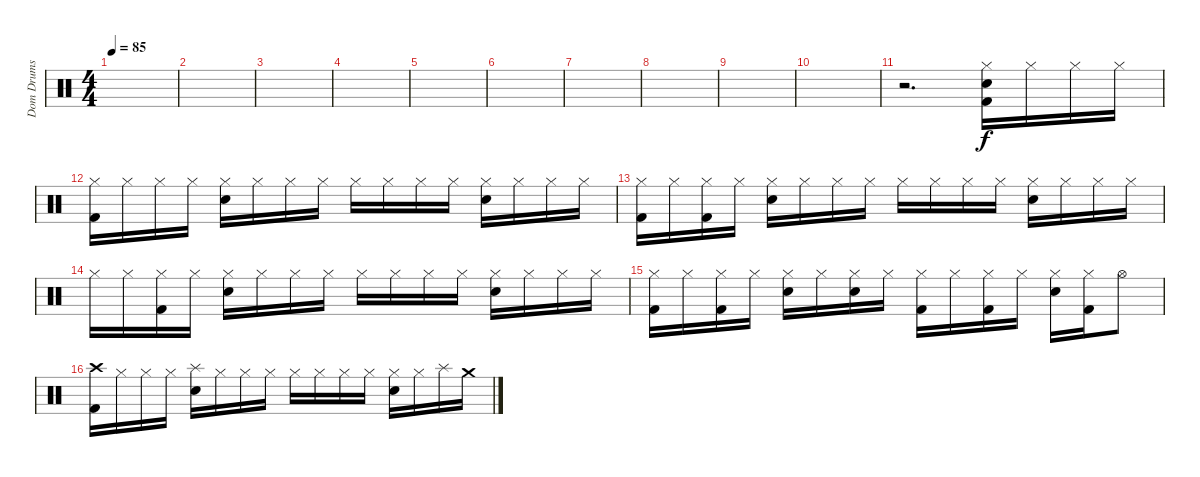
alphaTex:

\track ("Dom Drums" "Dom Drums") {instrument percussion}
\staff {score}
\articulation defaults
\ts (4 4)
\tempo 85
\clef neutral
\ks c
|
|
|
|
|
|
|
|
|
|
r.2{d} ("Hi-Hat (closed)" "Snare (hit) 2" "Kick (hit) 2").16 "Hi-Hat (closed)".16 "Hi-Hat (closed)".16 "Hi-Hat (closed)".16 |
("Hi-Hat (closed)" "Kick (hit) 2").16 "Hi-Hat (closed)".16 "Hi-Hat (closed)".16 "Hi-Hat (closed)".16 ("Hi-Hat (closed)" "Snare (hit) 2").16 "Hi-Hat (closed)".16 "Hi-Hat (closed)".16 "Hi-Hat (closed)".16 "Hi-Hat (closed)".16 "Hi-Hat (closed)".16 "Hi-Hat (closed)".16 "Hi-Hat (closed)".16 ("Hi-Hat (closed)" "Snare (hit) 2").16 "Hi-Hat (closed)".16 "Hi-Hat (closed)".16 "Hi-Hat (closed)".16 |
("Hi-Hat (closed)" "Kick (hit) 2").16 "Hi-Hat (closed)".16 ("Hi-Hat (closed)" "Kick (hit) 2").16 "Hi-Hat (closed)".16 ("Hi-Hat (closed)" "Snare (hit) 2").16 "Hi-Hat (closed)".16 "Hi-Hat (closed)".16 "Hi-Hat (closed)".16 "Hi-Hat (closed)".16 "Hi-Hat (closed)".16 "Hi-Hat (closed)".16 "Hi-Hat (closed)".16 ("Hi-Hat (closed)" "Snare (hit) 2").16 "Hi-Hat (closed)".16 "Hi-Hat (closed)".16 "Hi-Hat (closed)".16 |
"Hi-Hat (closed)".16 "Hi-Hat (closed)".16 ("Hi-Hat (closed)" "Kick (hit) 2").16 "Hi-Hat (closed)".16 ("Hi-Hat (closed)" "Snare (hit) 2").16 "Hi-Hat (closed)".16 "Hi-Hat (closed)".16 "Hi-Hat (closed)".16 "Hi-Hat (closed)".16 "Hi-Hat (closed)".16 "Hi-Hat (closed)".16 "Hi-Hat (closed)".16 ("Hi-Hat (closed)" "Snare (hit) 2").16 "Hi-Hat (closed)".16 "Hi-Hat (closed)".16 "Hi-Hat (closed)".16 |
("Hi-Hat (closed)" "Kick (hit) 2").16 "Hi-Hat (closed)".16 ("Hi-Hat (closed)" "Kick (hit) 2").16 "Hi-Hat (closed)".16 ("Hi-Hat (closed)" "Snare (hit) 2").16 "Hi-Hat (closed)".16 ("Hi-Hat (closed)" "Snare (hit) 2").16 "Hi-Hat (closed)".16 ("Hi-Hat (closed)" "Kick (hit) 2").16 "Hi-Hat (closed)".16 ("Hi-Hat (closed)" "Kick (hit) 2").16 "Hi-Hat (closed)".16 ("Hi-Hat (closed)" "Snare (hit) 2").16 ("Hi-Hat (closed)" "Kick (hit) 2").16 "Hi-Hat (open)".8 |
("Crash high (hit)" "Kick (hit) 2").16 "Hi-Hat (closed)".16 "Hi-Hat (closed)".16 "Hi-Hat (closed)".16 ("Splash (hit)" "Snare (hit) 2").16 "Hi-Hat (closed)".16 "Hi-Hat (closed)".16 "Hi-Hat (closed)".16 "Hi-Hat (closed)".16 "Hi-Hat (closed)".16 "Hi-Hat (closed)".16 "Hi-Hat (closed)".16 ("Hi-Hat (closed)" "Snare (hit) 2").16 "Hi-Hat (closed)".16 "Splash (hit)".16 "Crash medium (hit)".16
